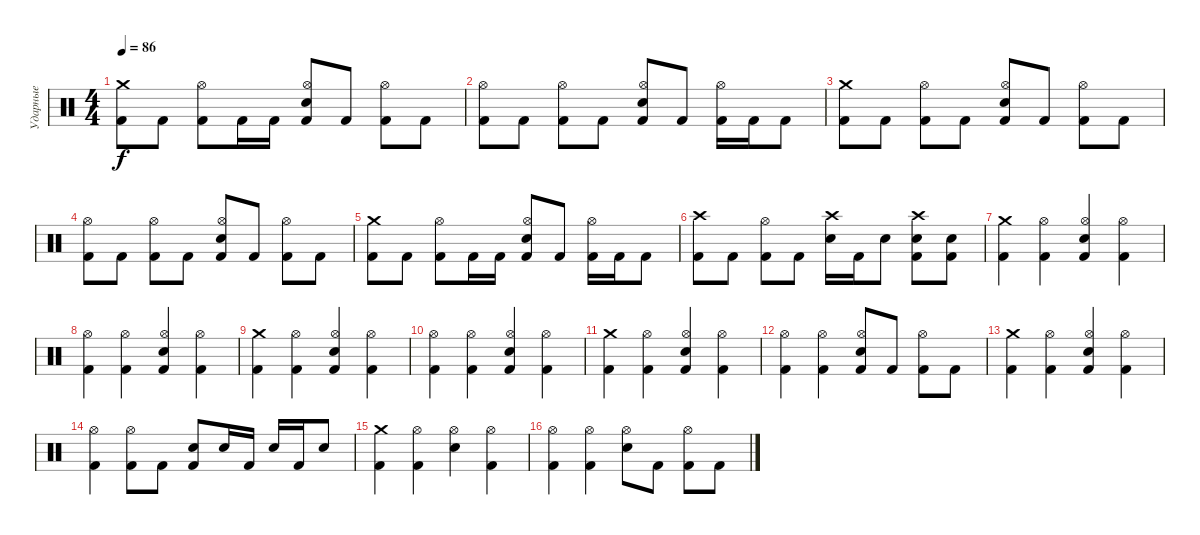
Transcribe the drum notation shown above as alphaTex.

\track ("Ударные" "Ударные") {instrument percussion}
\staff {score}
\articulation defaults
\ts (4 4)
\tempo 86
\clef neutral
\ks c
("Crash medium (hit)" "Kick (hit) 2").8{dy f} "Kick (hit) 2".8 ("Hi-Hat (open)" "Kick (hit) 2").8 "Kick (hit) 2".16 "Kick (hit) 2".16 ("Hi-Hat (open)" "Electric Snare (hit)" "Kick (hit) 2").8 "Kick (hit) 2".8 ("Hi-Hat (open)" "Kick (hit) 2").8 "Kick (hit) 2".8 |
("Hi-Hat (open)" "Kick (hit) 2").8 "Kick (hit) 2".8 ("Hi-Hat (open)" "Kick (hit) 2").8 "Kick (hit) 2".8 ("Hi-Hat (open)" "Electric Snare (hit)" "Kick (hit) 2").8 "Kick (hit) 2".8 ("Hi-Hat (open)" "Kick (hit) 2").16 "Kick (hit) 2".16 "Kick (hit) 2".8 |
("Crash medium (hit)" "Kick (hit) 2").8 "Kick (hit) 2".8 ("Hi-Hat (open)" "Kick (hit) 2").8 "Kick (hit) 2".8 ("Hi-Hat (open)" "Electric Snare (hit)" "Kick (hit) 2").8 "Kick (hit) 2".8 ("Hi-Hat (open)" "Kick (hit) 2").8 "Kick (hit) 2".8 |
("Hi-Hat (open)" "Kick (hit) 2").8 "Kick (hit) 2".8 ("Hi-Hat (open)" "Kick (hit) 2").8 "Kick (hit) 2".8 ("Hi-Hat (open)" "Electric Snare (hit)" "Kick (hit) 2").8 "Kick (hit) 2".8 ("Hi-Hat (open)" "Kick (hit) 2").8 "Kick (hit) 2".8 |
("Crash medium (hit)" "Kick (hit) 2").8 "Kick (hit) 2".8 ("Hi-Hat (open)" "Kick (hit) 2").8 "Kick (hit) 2".16 "Kick (hit) 2".16 ("Hi-Hat (open)" "Electric Snare (hit)" "Kick (hit) 2").8 "Kick (hit) 2".8 ("Hi-Hat (open)" "Kick (hit) 2").16 "Kick (hit) 2".16 "Kick (hit) 2".8 |
("Crash high (hit)" "Kick (hit) 2").8 "Kick (hit) 2".8 ("Hi-Hat (open)" "Kick (hit) 2").8 "Kick (hit) 2".8 ("Crash high (hit)" "Electric Snare (hit)").16 "Kick (hit) 2".16 "Electric Snare (hit)".8 ("Crash high (hit)" "Electric Snare (hit)" "Kick (hit) 2").8 ("Electric Snare (hit)" "Kick (hit) 2").8 |
("Crash medium (hit)" "Kick (hit) 2").4 ("Hi-Hat (open)" "Kick (hit) 2").4 ("Hi-Hat (open)" "Electric Snare (hit)" "Kick (hit) 2").4 ("Hi-Hat (open)" "Kick (hit) 2").4 |
("Hi-Hat (open)" "Kick (hit) 2").4 ("Hi-Hat (open)" "Kick (hit) 2").4 ("Hi-Hat (open)" "Electric Snare (hit)" "Kick (hit) 2").4 ("Hi-Hat (open)" "Kick (hit) 2").4 |
("Crash medium (hit)" "Kick (hit) 2").4 ("Hi-Hat (open)" "Kick (hit) 2").4 ("Hi-Hat (open)" "Electric Snare (hit)" "Kick (hit) 2").4 ("Hi-Hat (open)" "Kick (hit) 2").4 |
("Hi-Hat (open)" "Kick (hit) 2").4 ("Hi-Hat (open)" "Kick (hit) 2").4 ("Hi-Hat (open)" "Electric Snare (hit)" "Kick (hit) 2").4 ("Hi-Hat (open)" "Kick (hit) 2").4 |
("Crash medium (hit)" "Kick (hit) 2").4 ("Hi-Hat (open)" "Kick (hit) 2").4 ("Hi-Hat (open)" "Electric Snare (hit)" "Kick (hit) 2").4 ("Hi-Hat (open)" "Kick (hit) 2").4 |
("Hi-Hat (open)" "Kick (hit) 2").4 ("Hi-Hat (open)" "Kick (hit) 2").4 ("Hi-Hat (open)" "Electric Snare (hit)" "Kick (hit) 2").8 "Kick (hit) 2".8 ("Hi-Hat (open)" "Kick (hit) 2").8 "Kick (hit) 2".8 |
("Crash medium (hit)" "Kick (hit) 2").4 ("Hi-Hat (open)" "Kick (hit) 2").4 ("Hi-Hat (open)" "Electric Snare (hit)" "Kick (hit) 2").4 ("Hi-Hat (open)" "Kick (hit) 2").4 |
("Hi-Hat (open)" "Kick (hit) 2").4 ("Hi-Hat (open)" "Kick (hit) 2").8 "Kick (hit) 2".8 ("Electric Snare (hit)" "Kick (hit) 2").8 "Electric Snare (hit)".16 "Kick (hit) 2".16 "Electric Snare (hit)".16 "Kick (hit) 2".16 "Electric Snare (hit)".8 |
("Crash medium (hit)" "Kick (hit) 2").4 ("Hi-Hat (open)" "Kick (hit) 2").4 ("Hi-Hat (open)" "Electric Snare (hit)").4 ("Hi-Hat (open)" "Kick (hit) 2").4 |
("Hi-Hat (open)" "Kick (hit) 2").4 ("Hi-Hat (open)" "Kick (hit) 2").4 ("Hi-Hat (open)" "Electric Snare (hit)").8 "Kick (hit) 2".8 ("Hi-Hat (open)" "Kick (hit) 2").8 "Kick (hit) 2".8
